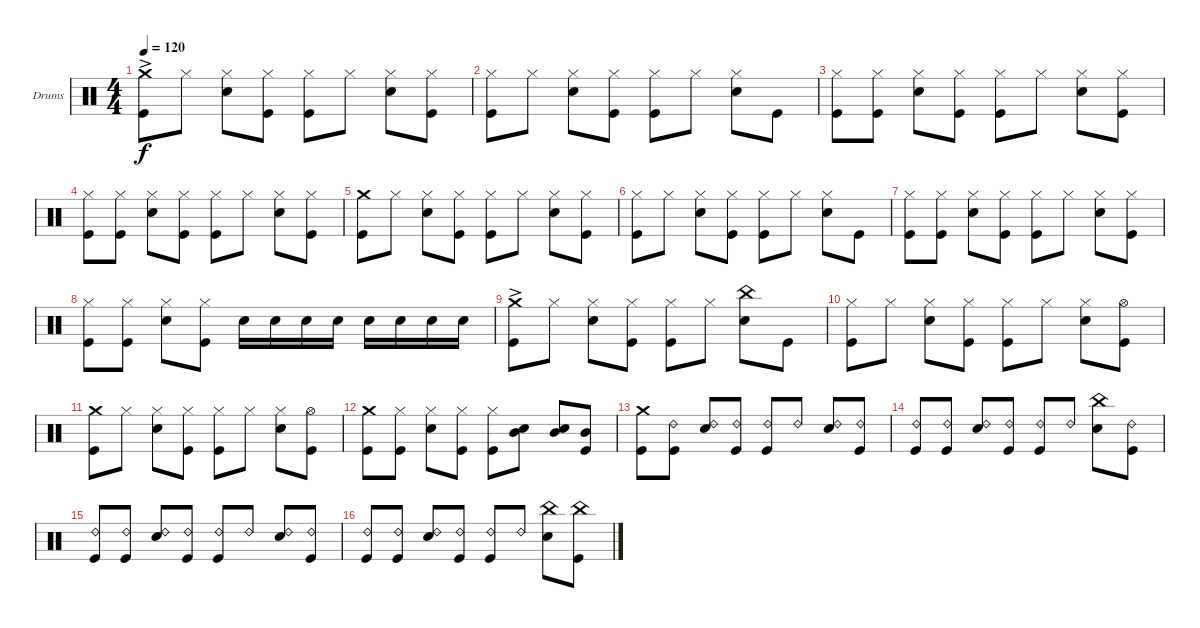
\defaultSystemsLayout 4
\bracketExtendMode groupsimilarinstruments
\firstSystemTrackNameOrientation horizontal
\otherSystemsTrackNameOrientation horizontal
\track ("Stefan Schwarzmann" "Drums") {instrument percussion}
\staff {score}
\articulation defaults
\ts (4 4)
\tempo 120
\clef neutral
\ks c
("Crash medium (hit)"{ac} "Kick (hit)").8{dy f} "Hi-Hat (closed)".8 ("Hi-Hat (closed)" "Snare (hit) 2").8 ("Hi-Hat (closed)" "Kick (hit)").8 ("Hi-Hat (closed)" "Kick (hit)").8 "Hi-Hat (closed)".8 ("Hi-Hat (closed)" "Snare (hit) 2").8 ("Hi-Hat (closed)" "Kick (hit)").8 |
("Hi-Hat (closed)" "Kick (hit)").8 "Hi-Hat (closed)".8 ("Hi-Hat (closed)" "Snare (hit) 2").8 ("Hi-Hat (closed)" "Kick (hit)").8 ("Hi-Hat (closed)" "Kick (hit)").8 "Hi-Hat (closed)".8 ("Hi-Hat (closed)" "Snare (hit) 2").8 "Kick (hit)".8 |
("Hi-Hat (closed)" "Kick (hit)").8 ("Hi-Hat (closed)" "Kick (hit)").8 ("Hi-Hat (closed)" "Snare (hit) 2").8 ("Hi-Hat (closed)" "Kick (hit)").8 ("Hi-Hat (closed)" "Kick (hit)").8 "Hi-Hat (closed)".8 ("Hi-Hat (closed)" "Snare (hit) 2").8 ("Hi-Hat (closed)" "Kick (hit)").8 |
("Hi-Hat (closed)" "Kick (hit)").8 ("Hi-Hat (closed)" "Kick (hit)").8 ("Hi-Hat (closed)" "Snare (hit) 2").8 ("Hi-Hat (closed)" "Kick (hit)").8 ("Hi-Hat (closed)" "Kick (hit)").8 "Hi-Hat (closed)".8 ("Hi-Hat (closed)" "Snare (hit) 2").8 ("Hi-Hat (closed)" "Kick (hit)").8 |
("Crash medium (hit)" "Kick (hit)").8 "Hi-Hat (closed)".8 ("Hi-Hat (closed)" "Snare (hit) 2").8 ("Hi-Hat (closed)" "Kick (hit)").8 ("Hi-Hat (closed)" "Kick (hit)").8 "Hi-Hat (closed)".8 ("Hi-Hat (closed)" "Snare (hit) 2").8 ("Hi-Hat (closed)" "Kick (hit)").8 |
("Hi-Hat (closed)" "Kick (hit)").8 "Hi-Hat (closed)".8 ("Hi-Hat (closed)" "Snare (hit) 2").8 ("Hi-Hat (closed)" "Kick (hit)").8 ("Hi-Hat (closed)" "Kick (hit)").8 "Hi-Hat (closed)".8 ("Hi-Hat (closed)" "Snare (hit) 2").8 "Kick (hit)".8 |
("Hi-Hat (closed)" "Kick (hit)").8 ("Hi-Hat (closed)" "Kick (hit)").8 ("Hi-Hat (closed)" "Snare (hit) 2").8 ("Hi-Hat (closed)" "Kick (hit)").8 ("Hi-Hat (closed)" "Kick (hit)").8 "Hi-Hat (closed)".8 ("Hi-Hat (closed)" "Snare (hit) 2").8 ("Hi-Hat (closed)" "Kick (hit)").8 |
("Hi-Hat (closed)" "Kick (hit)").8 ("Hi-Hat (closed)" "Kick (hit)").8 ("Snare (hit) 2" "Hi-Hat (closed)").8 ("Kick (hit)" "Hi-Hat (closed)").8 "Snare (hit) 2".16 "Snare (hit) 2".16 "Snare (hit) 2".16 "Snare (hit) 2".16 "Snare (hit) 2".16 "Snare (hit) 2".16 "Snare (hit) 2".16 "Snare (hit) 2".16 |
("Crash medium (hit)"{ac} "Kick (hit)").8 "Hi-Hat (closed)".8 ("Hi-Hat (closed)" "Snare (hit) 2").8 ("Hi-Hat (closed)" "Kick (hit)").8 ("Hi-Hat (closed)" "Kick (hit)").8 "Hi-Hat (closed)".8 ("China (hit)" "Snare (hit) 2").8 "Kick (hit)".8 |
("Hi-Hat (closed)" "Kick (hit)").8 "Hi-Hat (closed)".8 ("Hi-Hat (closed)" "Snare (hit) 2").8 ("Hi-Hat (closed)" "Kick (hit)").8 ("Hi-Hat (closed)" "Kick (hit)").8 "Hi-Hat (closed)".8 ("Hi-Hat (closed)" "Snare (hit) 2").8 ("Hi-Hat (open)" "Kick (hit)").8 |
("Crash medium (hit)" "Kick (hit)").8 "Hi-Hat (closed)".8 ("Hi-Hat (closed)" "Snare (hit) 2").8 ("Hi-Hat (closed)" "Kick (hit)").8 ("Hi-Hat (closed)" "Kick (hit)").8 "Hi-Hat (closed)".8 ("Hi-Hat (closed)" "Snare (hit) 2").8 ("Hi-Hat (open)" "Kick (hit)").8 |
("Crash medium (hit)" "Kick (hit)").8 ("Hi-Hat (closed)" "Kick (hit)").8 ("Hi-Hat (closed)" "Snare (hit) 2").8 ("Hi-Hat (closed)" "Kick (hit)").8 ("Hi-Hat (closed)" "Kick (hit)").8 ("Mid Tom (hit)" "Snare (hit) 2").8 ("Mid Tom (hit)" "Snare (hit) 2").8 ("Mid Tom (hit)" "Kick (hit)").8 |
("Crash medium (hit)" "Kick (hit)").8 ("Ride (bell) 2" "Kick (hit)").8 ("Ride (bell) 2" "Snare (hit) 2").8 ("Ride (bell) 2" "Kick (hit)").8 ("Ride (bell) 2" "Kick (hit)").8 "Ride (bell) 2".8 ("Ride (bell) 2" "Snare (hit) 2").8 ("Ride (bell) 2" "Kick (hit)").8 |
("Ride (bell) 2" "Kick (hit)").8 ("Ride (bell) 2" "Kick (hit)").8 ("Ride (bell) 2" "Snare (hit) 2").8 ("Ride (bell) 2" "Kick (hit)").8 ("Ride (bell) 2" "Kick (hit)").8 "Ride (bell) 2".8 ("China (hit)" "Snare (hit) 2").8 ("Ride (bell) 2" "Kick (hit)").8 |
("Ride (bell) 2" "Kick (hit)").8 ("Ride (bell) 2" "Kick (hit)").8 ("Ride (bell) 2" "Snare (hit) 2").8 ("Ride (bell) 2" "Kick (hit)").8 ("Ride (bell) 2" "Kick (hit)").8 "Ride (bell) 2".8 ("Ride (bell) 2" "Snare (hit) 2").8 ("Ride (bell) 2" "Kick (hit)").8 |
("Ride (bell) 2" "Kick (hit)").8 ("Ride (bell) 2" "Kick (hit)").8 ("Ride (bell) 2" "Snare (hit) 2").8 ("Ride (bell) 2" "Kick (hit)").8 ("Ride (bell) 2" "Kick (hit)").8 "Ride (bell) 2".8 ("China (hit)" "Snare (hit) 2").8 ("China (hit)" "Kick (hit)").8
